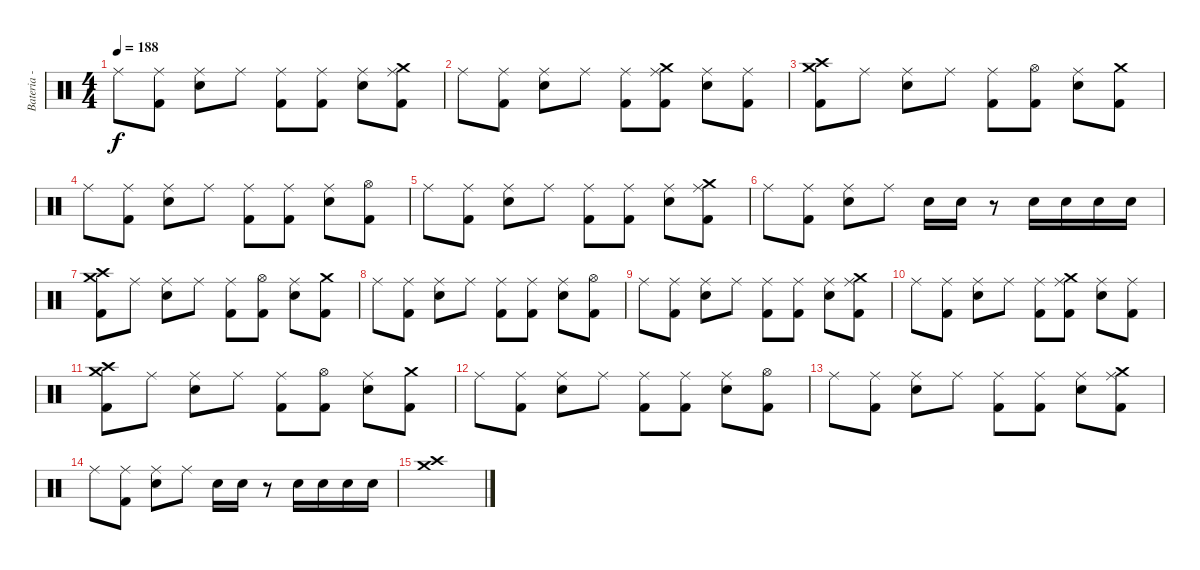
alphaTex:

\track ("Bateria - Larzon" "Bateria - ") {instrument percussion}
\staff {score}
\articulation defaults
\ts (4 4)
\tempo 188
\clef neutral
\ks c "Ride (middle)".8{dy f}
("Kick (hit) 2" "Ride (middle)").8 ("Snare (hit) 2" "Ride (middle)").8 "Ride (middle)".8 ("Kick (hit) 2" "Ride (middle)").8 ("Kick (hit) 2" "Ride (middle)").8 ("Snare (hit) 2" "Ride (middle)").8 ("Kick (hit) 2" "Ride (middle)" "Crash medium (hit)").8 |
"Ride (middle)".8 ("Kick (hit) 2" "Ride (middle)").8 ("Snare (hit) 2" "Ride (middle)").8 "Ride (middle)".8 ("Kick (hit) 2" "Ride (middle)").8 ("Kick (hit) 2" "Ride (middle)" "Crash medium (hit)").8 ("Snare (hit) 2" "Ride (middle)").8 ("Kick (hit) 2" "Ride (middle)").8 |
("Kick (hit) 2" "Crash medium (hit)" "Crash high (hit)").8 "Ride (middle)".8 ("Snare (hit) 2" "Ride (middle)").8 "Ride (middle)".8 ("Kick (hit) 2" "Ride (middle)").8 ("Kick (hit) 2" "Hi-Hat (open)").8 ("Snare (hit) 2" "Ride (middle)").8 ("Kick (hit) 2" "Crash medium (hit)").8 |
"Ride (middle)".8 ("Kick (hit) 2" "Ride (middle)").8 ("Snare (hit) 2" "Ride (middle)").8 "Ride (middle)".8 ("Kick (hit) 2" "Ride (middle)").8 ("Kick (hit) 2" "Ride (middle)").8 ("Snare (hit) 2" "Ride (middle)").8 ("Kick (hit) 2" "Hi-Hat (open)").8 |
"Ride (middle)".8 ("Kick (hit) 2" "Ride (middle)").8 ("Snare (hit) 2" "Ride (middle)").8 "Ride (middle)".8 ("Kick (hit) 2" "Ride (middle)").8 ("Kick (hit) 2" "Ride (middle)").8 ("Snare (hit) 2" "Ride (middle)").8 ("Kick (hit) 2" "Ride (middle)" "Crash medium (hit)").8 |
"Ride (middle)".8 ("Kick (hit) 2" "Ride (middle)").8 ("Snare (hit) 2" "Ride (middle)").8 "Ride (middle)".8 "Snare (hit) 2".16 "Snare (hit) 2".16 r.8 "Snare (hit) 2".16 "Snare (hit) 2".16 "Snare (hit) 2".16 "Snare (hit) 2".16 |
("Kick (hit) 2" "Crash medium (hit)" "Crash high (hit)").8 "Ride (middle)".8 ("Snare (hit) 2" "Ride (middle)").8 "Ride (middle)".8 ("Kick (hit) 2" "Ride (middle)").8 ("Kick (hit) 2" "Hi-Hat (open)").8 ("Snare (hit) 2" "Ride (middle)").8 ("Kick (hit) 2" "Crash medium (hit)").8 |
"Ride (middle)".8 ("Kick (hit) 2" "Ride (middle)").8 ("Snare (hit) 2" "Ride (middle)").8 "Ride (middle)".8 ("Kick (hit) 2" "Ride (middle)").8 ("Kick (hit) 2" "Ride (middle)").8 ("Snare (hit) 2" "Ride (middle)").8 ("Kick (hit) 2" "Hi-Hat (open)").8 |
"Ride (middle)".8 ("Kick (hit) 2" "Ride (middle)").8 ("Snare (hit) 2" "Ride (middle)").8 "Ride (middle)".8 ("Kick (hit) 2" "Ride (middle)").8 ("Kick (hit) 2" "Ride (middle)").8 ("Snare (hit) 2" "Ride (middle)").8 ("Kick (hit) 2" "Ride (middle)" "Crash medium (hit)").8 |
"Ride (middle)".8 ("Kick (hit) 2" "Ride (middle)").8 ("Snare (hit) 2" "Ride (middle)").8 "Ride (middle)".8 ("Kick (hit) 2" "Ride (middle)").8 ("Kick (hit) 2" "Ride (middle)" "Crash medium (hit)").8 ("Snare (hit) 2" "Ride (middle)").8 ("Kick (hit) 2" "Ride (middle)").8 |
("Kick (hit) 2" "Crash medium (hit)" "Crash high (hit)").8 "Ride (middle)".8 ("Snare (hit) 2" "Ride (middle)").8 "Ride (middle)".8 ("Kick (hit) 2" "Ride (middle)").8 ("Kick (hit) 2" "Hi-Hat (open)").8 ("Snare (hit) 2" "Ride (middle)").8 ("Kick (hit) 2" "Crash medium (hit)").8 |
"Ride (middle)".8 ("Kick (hit) 2" "Ride (middle)").8 ("Snare (hit) 2" "Ride (middle)").8 "Ride (middle)".8 ("Kick (hit) 2" "Ride (middle)").8 ("Kick (hit) 2" "Ride (middle)").8 ("Snare (hit) 2" "Ride (middle)").8 ("Kick (hit) 2" "Hi-Hat (open)").8 |
"Ride (middle)".8 ("Kick (hit) 2" "Ride (middle)").8 ("Snare (hit) 2" "Ride (middle)").8 "Ride (middle)".8 ("Kick (hit) 2" "Ride (middle)").8 ("Kick (hit) 2" "Ride (middle)").8 ("Snare (hit) 2" "Ride (middle)").8 ("Kick (hit) 2" "Ride (middle)" "Crash medium (hit)").8 |
"Ride (middle)".8{volume 16} ("Kick (hit) 2" "Ride (middle)").8 ("Snare (hit) 2" "Ride (middle)").8 "Ride (middle)".8 "Snare (hit) 2".16 "Snare (hit) 2".16 r.8 "Snare (hit) 2".16 "Snare (hit) 2".16 "Snare (hit) 2".16 "Snare (hit) 2".16 |
("Crash medium (hit)" "Crash high (hit)").1
